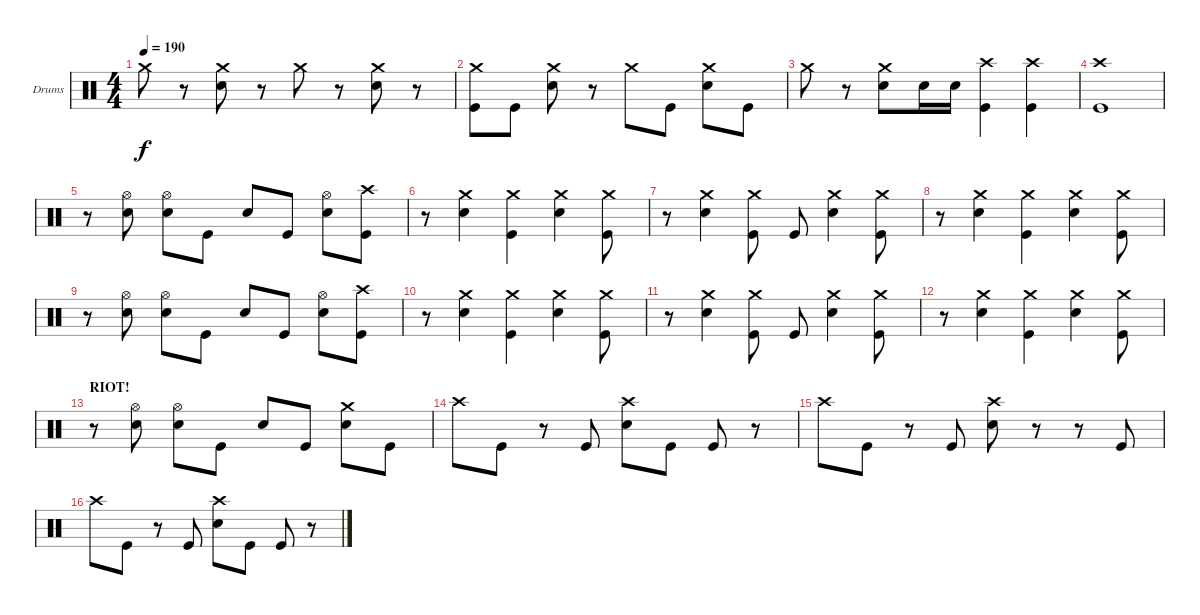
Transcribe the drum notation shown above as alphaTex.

\bracketExtendMode groupsimilarinstruments
\firstSystemTrackNameOrientation horizontal
\otherSystemsTrackNameOrientation horizontal
\track ("Drumkit" "Drums") {instrument percussion}
\staff {score}
\articulation defaults
\ts (4 4)
\tempo 190
\clef neutral
\scale
0.333333
\ks c "Crash medium (hit)".8{dy f}
r.8 ("Snare (hit) 2" "Crash medium (hit)").8 r.8 "Crash medium (hit)".8 r.8 ("Snare (hit) 2" "Crash medium (hit)").8 r.8 |
\scale
0.333333 ("Kick (hit)" "Crash medium (hit)").8 "Kick (hit)".8 ("Snare (hit) 2" "Crash medium (hit)").8 r.8 "Crash medium (hit)".8 "Kick (hit)".8 ("Snare (hit) 2" "Crash medium (hit)").8 "Kick (hit)".8 |
\scale
0.333333 "Crash medium (hit)".8 r.8 ("Snare (hit) 2" "Crash medium (hit)").8 "Snare (hit) 2".16 "Snare (hit) 2".16 ("Kick (hit)" "Crash high (hit)").4 ("Kick (hit)" "Crash high (hit)").4 |
\scale
0.333333 ("Kick (hit)" "Crash high (hit)").1 |
\scale
0.333333 r.8 ("Snare (hit) 2" "Hi-Hat (open)").8 ("Snare (hit) 2" "Hi-Hat (open)").8 "Kick (hit)".8 "Snare (hit) 2".8 "Kick (hit)".8 ("Snare (hit) 2" "Hi-Hat (open)").8 ("Kick (hit)" "Crash high (hit)").8 |
\scale
0.333333 r.8 ("Snare (hit) 2" "Crash medium (hit)").4 ("Kick (hit)" "Crash medium (hit)").4 ("Snare (hit) 2" "Crash medium (hit)").4 ("Kick (hit)" "Crash medium (hit)").8 |
r.8 ("Snare (hit) 2" "Crash medium (hit)").4 ("Kick (hit)" "Crash medium (hit)").8 "Kick (hit)".8 ("Snare (hit) 2" "Crash medium (hit)").4 ("Kick (hit)" "Crash medium (hit)").8 |
\scale
0.333333 r.8 ("Snare (hit) 2" "Crash medium (hit)").4 ("Kick (hit)" "Crash medium (hit)").4 ("Snare (hit) 2" "Crash medium (hit)").4 ("Kick (hit)" "Crash medium (hit)").8 |
\scale
0.333333 r.8 ("Snare (hit) 2" "Hi-Hat (open)").8 ("Snare (hit) 2" "Hi-Hat (open)").8 "Kick (hit)".8 "Snare (hit) 2".8 "Kick (hit)".8 ("Snare (hit) 2" "Hi-Hat (open)").8 ("Kick (hit)" "Crash high (hit)").8 |
r.8 ("Snare (hit) 2" "Crash medium (hit)").4 ("Kick (hit)" "Crash medium (hit)").4 ("Snare (hit) 2" "Crash medium (hit)").4 ("Kick (hit)" "Crash medium (hit)").8 |
\scale
0.333333 r.8 ("Snare (hit) 2" "Crash medium (hit)").4 ("Kick (hit)" "Crash medium (hit)").8 "Kick (hit)".8 ("Snare (hit) 2" "Crash medium (hit)").4 ("Kick (hit)" "Crash medium (hit)").8 |
\scale
0.333333 r.8 ("Snare (hit) 2" "Crash medium (hit)").4 ("Kick (hit)" "Crash medium (hit)").4 ("Snare (hit) 2" "Crash medium (hit)").4 ("Kick (hit)" "Crash medium (hit)").8 |
\section ("" "RIOT!")
\scale
0.333333 r.8 ("Snare (hit) 2" "Hi-Hat (open)").8 ("Snare (hit) 2" "Hi-Hat (open)").8 "Kick (hit)".8 "Snare (hit) 2".8 "Kick (hit)".8 ("Snare (hit) 2" "Crash medium (hit)").8 "Kick (hit)".8 |
\scale
0.333333 "Crash high (hit)".8 "Kick (hit)".8 r.8 "Kick (hit)".8 ("Snare (hit) 2" "Crash high (hit)").8 "Kick (hit)".8 "Kick (hit)".8 r.8 |
\scale
0.333333 "Crash high (hit)".8 "Kick (hit)".8 r.8 "Kick (hit)".8 ("Snare (hit) 2" "Crash high (hit)").8 r.8 r.8 "Kick (hit)".8 |
\scale
0.333333 "Crash high (hit)".8 "Kick (hit)".8 r.8 "Kick (hit)".8 ("Snare (hit) 2" "Crash high (hit)").8 "Kick (hit)".8 "Kick (hit)".8 r.8
